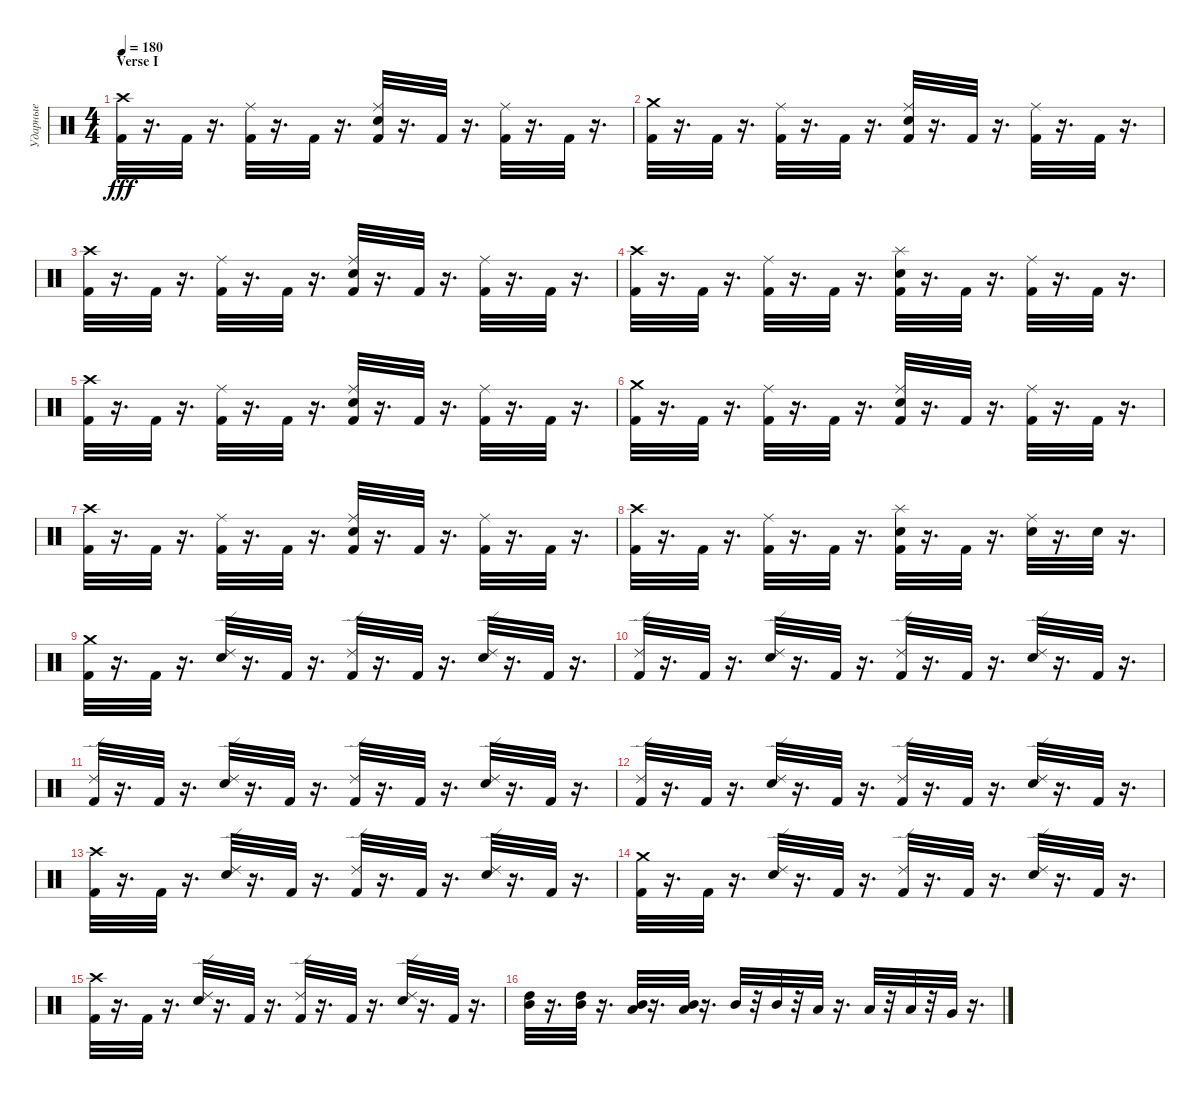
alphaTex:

\track ("Ударные" "Ударные") {instrument percussion}
\staff {score}
\articulation defaults
\ts (4 4)
\section ("" "Verse I")
\tempo 180
\clef neutral
\ks c
("Kick (hit) 2" "Crash high (hit)").32{dy fff} r.16{d} "Kick (hit) 2".32 r.16{d} ("Ride (middle)" "Kick (hit) 2").32 r.16{d} "Kick (hit) 2".32 r.16{d} ("Kick (hit) 2" "Ride (middle)" "Snare (hit) 2").32 r.16{d} "Kick (hit) 2".32 r.16{d} ("Ride (middle)" "Kick (hit) 2").32 r.16{d} "Kick (hit) 2".32 r.16{d} |
("Kick (hit) 2" "Crash medium (hit)").32 r.16{d} "Kick (hit) 2".32 r.16{d} ("Kick (hit) 2" "Ride (middle)").32 r.16{d} "Kick (hit) 2".32 r.16{d} ("Kick (hit) 2" "Ride (middle)" "Snare (hit) 2").32 r.16{d} "Kick (hit) 2".32 r.16{d} ("Ride (middle)" "Kick (hit) 2").32 r.16{d} "Kick (hit) 2".32 r.16{d} |
("Kick (hit) 2" "Crash high (hit)").32 r.16{d} "Kick (hit) 2".32 r.16{d} ("Ride (middle)" "Kick (hit) 2").32 r.16{d} "Kick (hit) 2".32 r.16{d} ("Snare (hit) 2" "Kick (hit) 2" "Ride (middle)").32 r.16{d} "Kick (hit) 2".32 r.16{d} ("Kick (hit) 2" "Ride (middle)").32 r.16{d} "Kick (hit) 2".32 r.16{d} |
("Crash high (hit)" "Kick (hit) 2").32 r.16{d} "Kick (hit) 2".32 r.16{d} ("Ride (middle)" "Kick (hit) 2").32 r.16{d} "Kick (hit) 2".32 r.16{d} ("Kick (hit) 2" "Splash (hit)" "Snare (hit) 2").32 r.16{d} "Kick (hit) 2".32 r.16{d} ("Ride (middle)" "Kick (hit) 2").32 r.16{d} "Kick (hit) 2".32 r.16{d} |
("Crash high (hit)" "Kick (hit) 2").32 r.16{d} "Kick (hit) 2".32 r.16{d} ("Ride (middle)" "Kick (hit) 2").32 r.16{d} "Kick (hit) 2".32 r.16{d} ("Snare (hit) 2" "Ride (middle)" "Kick (hit) 2").32 r.16{d} "Kick (hit) 2".32 r.16{d} ("Ride (middle)" "Kick (hit) 2").32 r.16{d} "Kick (hit) 2".32 r.16{d} |
("Crash medium (hit)" "Kick (hit) 2").32 r.16{d} "Kick (hit) 2".32 r.16{d} ("Kick (hit) 2" "Ride (middle)").32 r.16{d} "Kick (hit) 2".32 r.16{d} ("Kick (hit) 2" "Snare (hit) 2" "Ride (middle)").32 r.16{d} "Kick (hit) 2".32 r.16{d} ("Kick (hit) 2" "Ride (middle)").32 r.16{d} "Kick (hit) 2".32 r.16{d} |
("Kick (hit) 2" "Crash high (hit)").32 r.16{d} "Kick (hit) 2".32 r.16{d} ("Ride (middle)" "Kick (hit) 2").32 r.16{d} "Kick (hit) 2".32 r.16{d} ("Snare (hit) 2" "Kick (hit) 2" "Ride (middle)").32 r.16{d} "Kick (hit) 2".32 r.16{d} ("Kick (hit) 2" "Ride (middle)").32 r.16{d} "Kick (hit) 2".32 r.16{d} |
("Kick (hit) 2" "Crash high (hit)").32 r.16{d} "Kick (hit) 2".32 r.16{d} ("Ride (middle)" "Kick (hit) 2").32 r.16{d} "Kick (hit) 2".32 r.16{d} ("Splash (hit)" "Kick (hit) 2" "Snare (hit) 2").32 r.16{d} "Kick (hit) 2".32 r.16{d} ("Ride (middle)" "Snare (hit) 2").32 r.16{d} "Snare (hit) 2".32 r.16{d} |
("Crash medium (hit)" "Kick (hit) 2").32 r.16{d} "Kick (hit) 2".32 r.16{d} ("Snare (hit) 2" "Ride (edge) 2").32 r.16{d} "Kick (hit) 2".32 r.16{d} ("Ride (edge) 2" "Kick (hit) 2").32 r.16{d} "Kick (hit) 2".32 r.16{d} ("Snare (hit) 2" "Ride (edge) 2").32 r.16{d} "Kick (hit) 2".32 r.16{d} |
("Ride (edge) 2" "Kick (hit) 2").32 r.16{d} "Kick (hit) 2".32 r.16{d} ("Ride (edge) 2" "Snare (hit) 2").32 r.16{d} "Kick (hit) 2".32 r.16{d} ("Kick (hit) 2" "Ride (edge) 2").32 r.16{d} "Kick (hit) 2".32 r.16{d} ("Ride (edge) 2" "Snare (hit) 2").32 r.16{d} "Kick (hit) 2".32 r.16{d} |
("Ride (edge) 2" "Kick (hit) 2").32 r.16{d} "Kick (hit) 2".32 r.16{d} ("Ride (edge) 2" "Snare (hit) 2").32 r.16{d} "Kick (hit) 2".32 r.16{d} ("Ride (edge) 2" "Kick (hit) 2").32 r.16{d} "Kick (hit) 2".32 r.16{d} ("Snare (hit) 2" "Ride (edge) 2").32 r.16{d} "Kick (hit) 2".32 r.16{d} |
("Kick (hit) 2" "Ride (edge) 2").32 r.16{d} "Kick (hit) 2".32 r.16{d} ("Ride (edge) 2" "Snare (hit) 2").32 r.16{d} "Kick (hit) 2".32 r.16{d} ("Kick (hit) 2" "Ride (edge) 2").32 r.16{d} "Kick (hit) 2".32 r.16{d} ("Snare (hit) 2" "Ride (edge) 2").32 r.16{d} "Kick (hit) 2".32 r.16{d} |
("Crash high (hit)" "Kick (hit) 2").32 r.16{d} "Kick (hit) 2".32 r.16{d} ("Snare (hit) 2" "Ride (edge) 2").32 r.16{d} "Kick (hit) 2".32 r.16{d} ("Ride (edge) 2" "Kick (hit) 2").32 r.16{d} "Kick (hit) 2".32 r.16{d} ("Snare (hit) 2" "Ride (edge) 2").32 r.16{d} "Kick (hit) 2".32 r.16{d} |
("Crash medium (hit)" "Kick (hit) 2").32 r.16{d} "Kick (hit) 2".32 r.16{d} ("Ride (edge) 2" "Snare (hit) 2").32 r.16{d} "Kick (hit) 2".32 r.16{d} ("Ride (edge) 2" "Kick (hit) 2").32 r.16{d} "Kick (hit) 2".32 r.16{d} ("Snare (hit) 2" "Ride (edge) 2").32 r.16{d} "Kick (hit) 2".32 r.16{d} |
("Crash high (hit)" "Kick (hit) 2").32 r.16{d} "Kick (hit) 2".32 r.16{d} ("Snare (hit) 2" "Ride (edge) 2").32 r.16{d} "Kick (hit) 2".32 r.16{d} ("Kick (hit) 2" "Ride (edge) 2").32 r.16{d} "Kick (hit) 2".32 r.16{d} ("Ride (edge) 2" "Snare (hit) 2").32 r.16{d} "Kick (hit) 2".32 r.16{d} |
("Mid Tom (hit)" "High Tom (hit)").32 r.16{d} ("Mid Tom (hit)" "High Tom (hit)").32 r.16{d} ("Low Tom (hit)" "Mid Tom (hit)").32 r.16{d} ("Mid Tom (hit)" "Low Tom (hit)").32 r.16{d} "Mid Tom (hit)".32 r.32 "Mid Tom (hit)".32 r.32 "Low Tom (hit)".32 r.16{d} "Low Tom (hit)".32 r.32 "Low Tom (hit)".32 r.32 "Very Low Tom (hit)".32 r.16{d}
